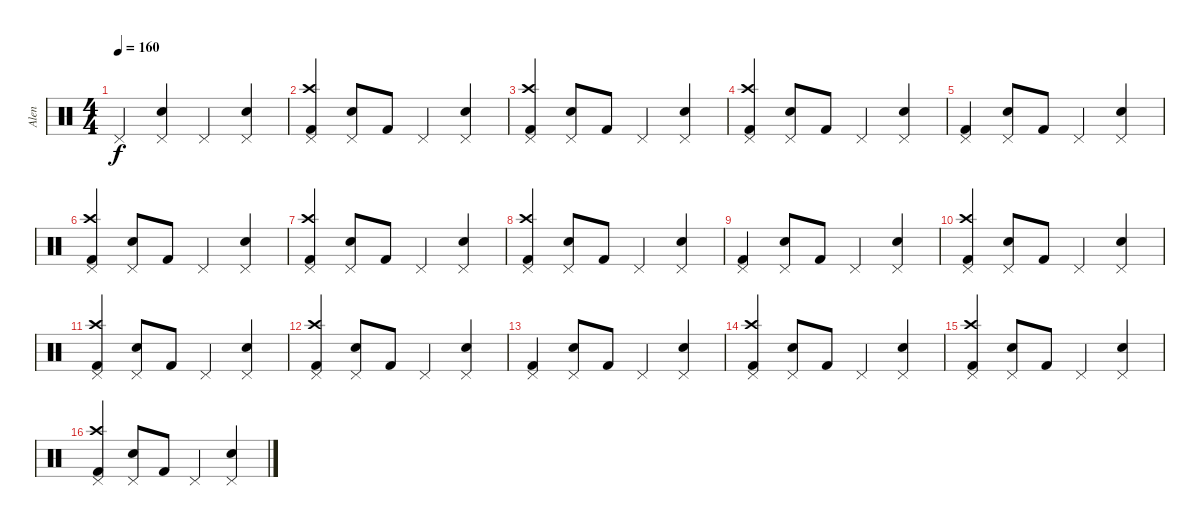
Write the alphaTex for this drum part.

\track ("Alen" "Alen") {instrument percussion}
\staff {score}
\articulation defaults
\ts (4 4)
\tempo 160
\clef neutral
\ks c "Pedal Hi-Hat (hit)".4{dy f}
("Pedal Hi-Hat (hit)" "Snare (hit) 2").4 "Pedal Hi-Hat (hit)".4 ("Pedal Hi-Hat (hit)" "Snare (hit) 2").4 |
("Crash high (hit)" "Pedal Hi-Hat (hit)" "Kick (hit) 2").4 ("Pedal Hi-Hat (hit)" "Snare (hit) 2").8 "Kick (hit) 2".8 "Pedal Hi-Hat (hit)".4 ("Pedal Hi-Hat (hit)" "Snare (hit) 2").4 |
("Crash high (hit)" "Pedal Hi-Hat (hit)" "Kick (hit) 2").4 ("Pedal Hi-Hat (hit)" "Snare (hit) 2").8 "Kick (hit) 2".8 "Pedal Hi-Hat (hit)".4 ("Pedal Hi-Hat (hit)" "Snare (hit) 2").4 |
("Crash high (hit)" "Pedal Hi-Hat (hit)" "Kick (hit) 2").4 ("Pedal Hi-Hat (hit)" "Snare (hit) 2").8 "Kick (hit) 2".8 "Pedal Hi-Hat (hit)".4 ("Pedal Hi-Hat (hit)" "Snare (hit) 2").4 |
("Pedal Hi-Hat (hit)" "Kick (hit) 2").4 ("Pedal Hi-Hat (hit)" "Snare (hit) 2").8 "Kick (hit) 2".8 "Pedal Hi-Hat (hit)".4 ("Pedal Hi-Hat (hit)" "Snare (hit) 2").4 |
("Crash high (hit)" "Pedal Hi-Hat (hit)" "Kick (hit) 2").4 ("Pedal Hi-Hat (hit)" "Snare (hit) 2").8 "Kick (hit) 2".8 "Pedal Hi-Hat (hit)".4 ("Pedal Hi-Hat (hit)" "Snare (hit) 2").4 |
("Crash high (hit)" "Pedal Hi-Hat (hit)" "Kick (hit) 2").4 ("Pedal Hi-Hat (hit)" "Snare (hit) 2").8 "Kick (hit) 2".8 "Pedal Hi-Hat (hit)".4 ("Pedal Hi-Hat (hit)" "Snare (hit) 2").4 |
("Crash high (hit)" "Pedal Hi-Hat (hit)" "Kick (hit) 2").4 ("Pedal Hi-Hat (hit)" "Snare (hit) 2").8 "Kick (hit) 2".8 "Pedal Hi-Hat (hit)".4 ("Pedal Hi-Hat (hit)" "Snare (hit) 2").4 |
("Pedal Hi-Hat (hit)" "Kick (hit) 2").4 ("Pedal Hi-Hat (hit)" "Snare (hit) 2").8 "Kick (hit) 2".8 "Pedal Hi-Hat (hit)".4 ("Pedal Hi-Hat (hit)" "Snare (hit) 2").4 |
("Crash high (hit)" "Pedal Hi-Hat (hit)" "Kick (hit) 2").4 ("Pedal Hi-Hat (hit)" "Snare (hit) 2").8 "Kick (hit) 2".8 "Pedal Hi-Hat (hit)".4 ("Pedal Hi-Hat (hit)" "Snare (hit) 2").4 |
("Crash high (hit)" "Pedal Hi-Hat (hit)" "Kick (hit) 2").4 ("Pedal Hi-Hat (hit)" "Snare (hit) 2").8 "Kick (hit) 2".8 "Pedal Hi-Hat (hit)".4 ("Pedal Hi-Hat (hit)" "Snare (hit) 2").4 |
("Crash high (hit)" "Pedal Hi-Hat (hit)" "Kick (hit) 2").4 ("Pedal Hi-Hat (hit)" "Snare (hit) 2").8 "Kick (hit) 2".8 "Pedal Hi-Hat (hit)".4 ("Pedal Hi-Hat (hit)" "Snare (hit) 2").4 |
("Pedal Hi-Hat (hit)" "Kick (hit) 2").4 ("Pedal Hi-Hat (hit)" "Snare (hit) 2").8 "Kick (hit) 2".8 "Pedal Hi-Hat (hit)".4 ("Pedal Hi-Hat (hit)" "Snare (hit) 2").4 |
("Crash high (hit)" "Pedal Hi-Hat (hit)" "Kick (hit) 2").4 ("Pedal Hi-Hat (hit)" "Snare (hit) 2").8 "Kick (hit) 2".8 "Pedal Hi-Hat (hit)".4 ("Pedal Hi-Hat (hit)" "Snare (hit) 2").4 |
("Crash high (hit)" "Pedal Hi-Hat (hit)" "Kick (hit) 2").4 ("Pedal Hi-Hat (hit)" "Snare (hit) 2").8 "Kick (hit) 2".8 "Pedal Hi-Hat (hit)".4 ("Pedal Hi-Hat (hit)" "Snare (hit) 2").4 |
("Crash high (hit)" "Pedal Hi-Hat (hit)" "Kick (hit) 2").4 ("Pedal Hi-Hat (hit)" "Snare (hit) 2").8 "Kick (hit) 2".8 "Pedal Hi-Hat (hit)".4 ("Pedal Hi-Hat (hit)" "Snare (hit) 2").4
